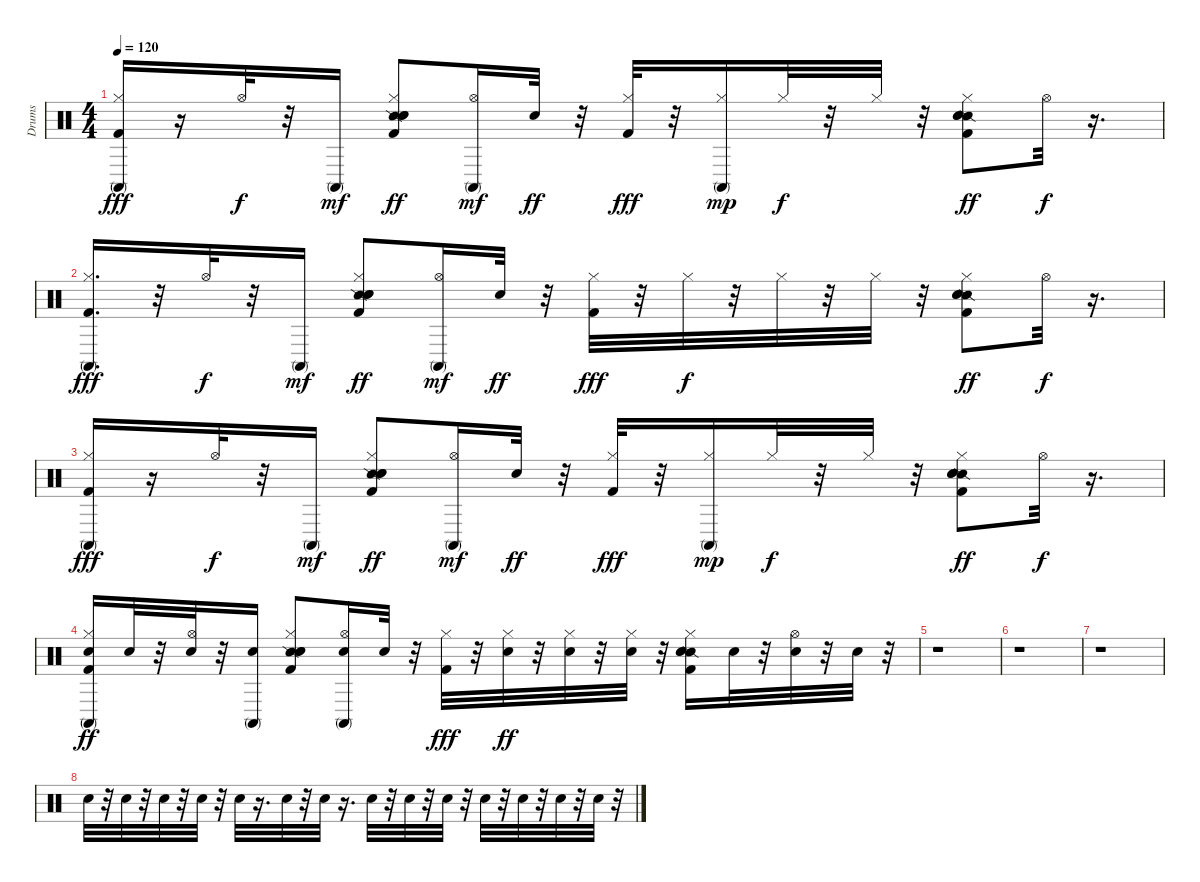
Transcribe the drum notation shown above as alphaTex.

\track ("Drums" "Drums") {instrument percussion}
\staff {score}
\articulation defaults
\ts (4 4)
\tempo 120
\clef neutral
\ks c
("Conga high (mute)" "Kick (hit) 2" "Hi-Hat (closed)").16{dy fff} r.16 "Hi-Hat (open)".32{dy f} r.32 "Conga high (mute)".16{dy mf} ("Snare (side stick) 2" "Kick (hit) 2" "Snare (hit) 2" "Hi-Hat (closed)" "Hand Clap (hit)").8{dy ff} ("Conga high (mute)" "Hi-Hat (open)").16{dy mf} "Snare (hit) 2".32{dy ff} r.32 ("Kick (hit) 2" "Hi-Hat (closed)").32{dy fff} r.32 ("Conga high (mute)" "Hi-Hat (closed)").16{dy mp} "Hi-Hat (closed)".32{dy f} r.32 "Hi-Hat (closed)".32 r.32 ("Snare (side stick) 2" "Kick (hit) 2" "Snare (hit) 2" "Hi-Hat (closed)" "Hand Clap (hit)").8{dy ff} "Hi-Hat (open)".32{dy f} r.16{d} |
("Conga high (mute)" "Kick (hit) 2" "Hi-Hat (closed)").16{d dy fff} r.32 "Hi-Hat (open)".32{dy f} r.32 "Conga high (mute)".16{dy mf} ("Snare (side stick) 2" "Kick (hit) 2" "Snare (hit) 2" "Hi-Hat (closed)" "Hand Clap (hit)").8{dy ff} ("Conga high (mute)" "Hi-Hat (open)").16{dy mf} "Snare (hit) 2".32{dy ff} r.32 ("Kick (hit) 2" "Hi-Hat (closed)").32{dy fff} r.32 "Hi-Hat (closed)".32{dy f} r.32 "Hi-Hat (closed)".32 r.32 "Hi-Hat (closed)".32 r.32 ("Snare (side stick) 2" "Kick (hit) 2" "Snare (hit) 2" "Hi-Hat (closed)" "Hand Clap (hit)").8{dy ff} "Hi-Hat (open)".32{dy f} r.16{d} |
("Conga high (mute)" "Kick (hit) 2" "Hi-Hat (closed)").16{dy fff} r.16 "Hi-Hat (open)".32{dy f} r.32 "Conga high (mute)".16{dy mf} ("Snare (side stick) 2" "Kick (hit) 2" "Snare (hit) 2" "Hi-Hat (closed)" "Hand Clap (hit)").8{dy ff} ("Conga high (mute)" "Hi-Hat (open)").16{dy mf} "Snare (hit) 2".32{dy ff} r.32 ("Kick (hit) 2" "Hi-Hat (closed)").32{dy fff} r.32 ("Conga high (mute)" "Hi-Hat (closed)").16{dy mp} "Hi-Hat (closed)".32{dy f} r.32 "Hi-Hat (closed)".32 r.32 ("Snare (side stick) 2" "Kick (hit) 2" "Snare (hit) 2" "Hi-Hat (closed)" "Hand Clap (hit)").8{dy ff} "Hi-Hat (open)".32{dy f} r.16{d} |
("Conga high (mute)" "Kick (hit) 2" "Snare (hit) 2" "Hi-Hat (closed)").16{dy ff} "Snare (hit) 2".32 r.32 ("Snare (hit) 2" "Hi-Hat (open)").32 r.32 ("Conga high (mute)" "Snare (hit) 2").16 ("Snare (side stick) 2" "Kick (hit) 2" "Snare (hit) 2" "Hi-Hat (closed)" "Hand Clap (hit)").8 ("Conga high (mute)" "Snare (hit) 2" "Hi-Hat (open)").16 "Snare (hit) 2".32 r.32 ("Kick (hit) 2" "Hi-Hat (closed)").32{dy fff} r.32 ("Snare (hit) 2" "Hi-Hat (closed)").32{dy ff} r.32 ("Snare (hit) 2" "Hi-Hat (closed)").32 r.32 ("Snare (hit) 2" "Hi-Hat (closed)").32 r.32 ("Snare (side stick) 2" "Kick (hit) 2" "Snare (hit) 2" "Hi-Hat (closed)" "Hand Clap (hit)").16 "Snare (hit) 2".32 r.32 ("Snare (hit) 2" "Hi-Hat (open)").32 r.32 "Snare (hit) 2".32 r.32 |
r.1 |
r.1 |
r.1 |
"Snare (hit) 2".32 r.32 "Snare (hit) 2".32 r.32 "Snare (hit) 2".32 r.32 "Snare (hit) 2".32 r.32 "Snare (hit) 2".32 r.16{d} "Snare (hit) 2".32 r.32 "Snare (hit) 2".32 r.16{d} "Snare (hit) 2".32 r.32 "Snare (hit) 2".32 r.32 "Snare (hit) 2".32 r.32 "Snare (hit) 2".32 r.32 "Snare (hit) 2".32 r.32 "Snare (hit) 2".32 r.32 "Snare (hit) 2".32 r.32
